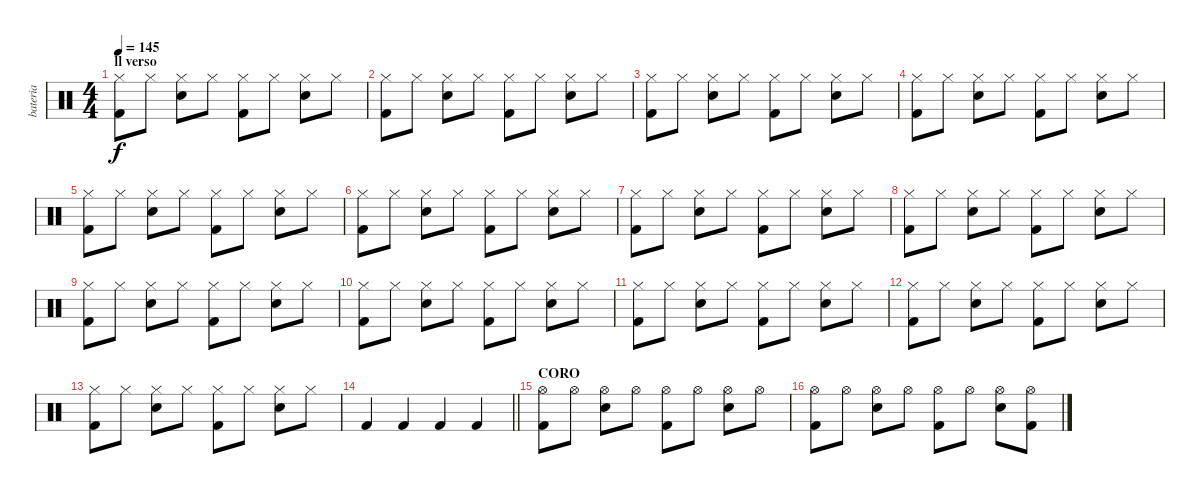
\track ("bateria" "bateria") {instrument percussion}
\staff {score}
\articulation defaults
\ts (4 4)
\section ("" "ll verso")
\tempo 145
\clef neutral
\ks c
("Hi-Hat (closed)" "Kick (hit) 2").8{dy f} "Hi-Hat (closed)".8 ("Hi-Hat (closed)" "Electric Snare (hit)").8 "Hi-Hat (closed)".8 ("Hi-Hat (closed)" "Kick (hit) 2").8 "Hi-Hat (closed)".8 ("Hi-Hat (closed)" "Electric Snare (hit)").8 "Hi-Hat (closed)".8 |
("Hi-Hat (closed)" "Kick (hit) 2").8 "Hi-Hat (closed)".8 ("Hi-Hat (closed)" "Electric Snare (hit)").8 "Hi-Hat (closed)".8 ("Hi-Hat (closed)" "Kick (hit) 2").8 "Hi-Hat (closed)".8 ("Hi-Hat (closed)" "Electric Snare (hit)").8 "Hi-Hat (closed)".8 |
("Hi-Hat (closed)" "Kick (hit) 2").8 "Hi-Hat (closed)".8 ("Hi-Hat (closed)" "Electric Snare (hit)").8 "Hi-Hat (closed)".8 ("Hi-Hat (closed)" "Kick (hit) 2").8 "Hi-Hat (closed)".8 ("Hi-Hat (closed)" "Electric Snare (hit)").8 "Hi-Hat (closed)".8 |
("Hi-Hat (closed)" "Kick (hit) 2").8 "Hi-Hat (closed)".8 ("Hi-Hat (closed)" "Electric Snare (hit)").8 "Hi-Hat (closed)".8 ("Hi-Hat (closed)" "Kick (hit) 2").8 "Hi-Hat (closed)".8 ("Hi-Hat (closed)" "Electric Snare (hit)").8 "Hi-Hat (closed)".8 |
("Hi-Hat (closed)" "Kick (hit) 2").8 "Hi-Hat (closed)".8 ("Hi-Hat (closed)" "Electric Snare (hit)").8 "Hi-Hat (closed)".8 ("Hi-Hat (closed)" "Kick (hit) 2").8 "Hi-Hat (closed)".8 ("Hi-Hat (closed)" "Electric Snare (hit)").8 "Hi-Hat (closed)".8 |
("Hi-Hat (closed)" "Kick (hit) 2").8 "Hi-Hat (closed)".8 ("Hi-Hat (closed)" "Electric Snare (hit)").8 "Hi-Hat (closed)".8 ("Hi-Hat (closed)" "Kick (hit) 2").8 "Hi-Hat (closed)".8 ("Hi-Hat (closed)" "Electric Snare (hit)").8 "Hi-Hat (closed)".8 |
("Hi-Hat (closed)" "Kick (hit) 2").8 "Hi-Hat (closed)".8 ("Hi-Hat (closed)" "Electric Snare (hit)").8 "Hi-Hat (closed)".8 ("Hi-Hat (closed)" "Kick (hit) 2").8 "Hi-Hat (closed)".8 ("Hi-Hat (closed)" "Electric Snare (hit)").8 "Hi-Hat (closed)".8 |
("Hi-Hat (closed)" "Kick (hit) 2").8 "Hi-Hat (closed)".8 ("Hi-Hat (closed)" "Electric Snare (hit)").8 "Hi-Hat (closed)".8 ("Hi-Hat (closed)" "Kick (hit) 2").8 "Hi-Hat (closed)".8 ("Hi-Hat (closed)" "Electric Snare (hit)").8 "Hi-Hat (closed)".8 |
("Hi-Hat (closed)" "Kick (hit) 2").8 "Hi-Hat (closed)".8 ("Hi-Hat (closed)" "Electric Snare (hit)").8 "Hi-Hat (closed)".8 ("Hi-Hat (closed)" "Kick (hit) 2").8 "Hi-Hat (closed)".8 ("Hi-Hat (closed)" "Electric Snare (hit)").8 "Hi-Hat (closed)".8 |
("Hi-Hat (closed)" "Kick (hit) 2").8 "Hi-Hat (closed)".8 ("Hi-Hat (closed)" "Electric Snare (hit)").8 "Hi-Hat (closed)".8 ("Hi-Hat (closed)" "Kick (hit) 2").8 "Hi-Hat (closed)".8 ("Hi-Hat (closed)" "Electric Snare (hit)").8 "Hi-Hat (closed)".8 |
("Hi-Hat (closed)" "Kick (hit) 2").8 "Hi-Hat (closed)".8 ("Hi-Hat (closed)" "Electric Snare (hit)").8 "Hi-Hat (closed)".8 ("Hi-Hat (closed)" "Kick (hit) 2").8 "Hi-Hat (closed)".8 ("Hi-Hat (closed)" "Electric Snare (hit)").8 "Hi-Hat (closed)".8 |
("Hi-Hat (closed)" "Kick (hit) 2").8 "Hi-Hat (closed)".8 ("Hi-Hat (closed)" "Electric Snare (hit)").8 "Hi-Hat (closed)".8 ("Hi-Hat (closed)" "Kick (hit) 2").8 "Hi-Hat (closed)".8 ("Hi-Hat (closed)" "Electric Snare (hit)").8 "Hi-Hat (closed)".8 |
("Hi-Hat (closed)" "Kick (hit) 2").8 "Hi-Hat (closed)".8 ("Hi-Hat (closed)" "Electric Snare (hit)").8 "Hi-Hat (closed)".8 ("Hi-Hat (closed)" "Kick (hit) 2").8 "Hi-Hat (closed)".8 ("Hi-Hat (closed)" "Electric Snare (hit)").8 "Hi-Hat (closed)".8 |
\barLineRight lightlight "Kick (hit) 2".4 "Kick (hit) 2".4 "Kick (hit) 2".4 "Kick (hit) 2".4
|
\section ("" "CORO")
("Hi-Hat (open)" "Kick (hit) 2").8 "Hi-Hat (open)".8 ("Hi-Hat (open)" "Electric Snare (hit)").8 "Hi-Hat (open)".8 ("Hi-Hat (open)" "Kick (hit) 2").8 "Hi-Hat (open)".8 ("Hi-Hat (open)" "Electric Snare (hit)").8 "Hi-Hat (open)".8 |
("Hi-Hat (open)" "Kick (hit) 2").8 "Hi-Hat (open)".8 ("Hi-Hat (open)" "Electric Snare (hit)").8 "Hi-Hat (open)".8 ("Hi-Hat (open)" "Kick (hit) 2").8 "Hi-Hat (open)".8 ("Hi-Hat (open)" "Electric Snare (hit)").8 ("Hi-Hat (open)" "Kick (hit) 2").8
